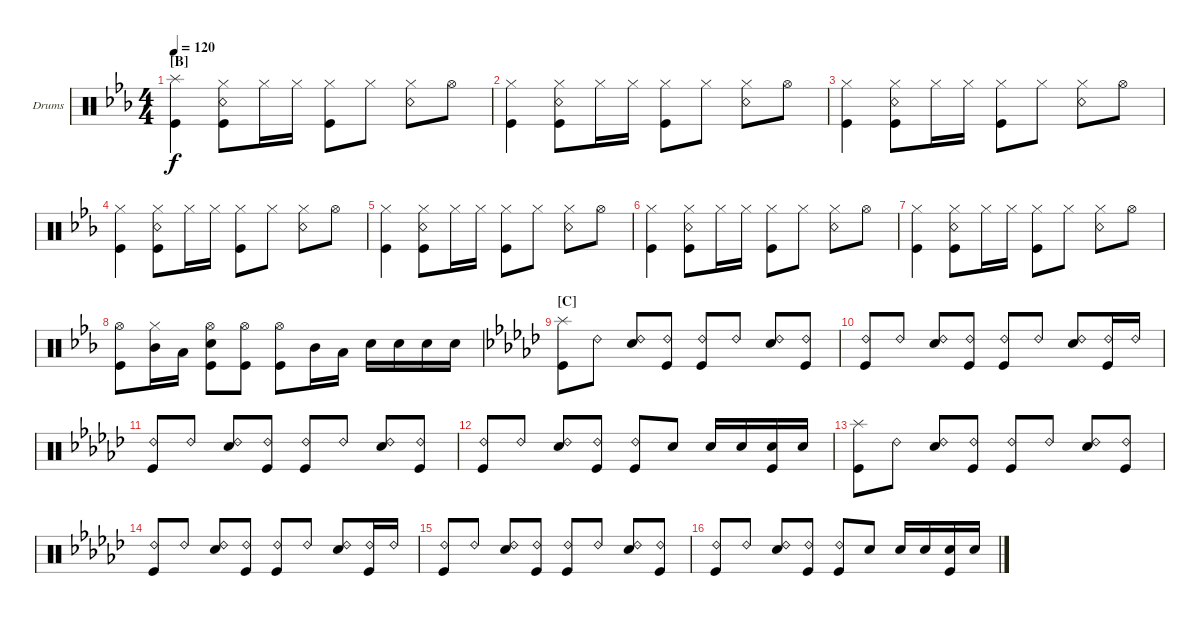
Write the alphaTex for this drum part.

\defaultSystemsLayout 4
\bracketExtendMode groupsimilarinstruments
\firstSystemTrackNameOrientation horizontal
\otherSystemsTrackNameOrientation horizontal
\track ("Drumkit" "Drums") {instrument percussion}
\staff {score}
\articulation defaults
\ts (4 4)
\section ("B" "")
\tempo 120
\clef neutral
\ks eb
("Kick (hit)" "Splash (hit)").4{dy f} ("Snare (rim shot)" "Hi-Hat (closed)" "Kick (hit)").8 "Hi-Hat (closed)".16 "Hi-Hat (closed)".16 ("Hi-Hat (closed)" "Kick (hit)").8 "Hi-Hat (closed)".8 ("Hi-Hat (closed)" "Snare (rim shot)").8 "Hi-Hat (open)".8 |
("Hi-Hat (closed)" "Kick (hit)").4 ("Snare (rim shot)" "Hi-Hat (closed)" "Kick (hit)").8 "Hi-Hat (closed)".16 "Hi-Hat (closed)".16 ("Hi-Hat (closed)" "Kick (hit)").8 "Hi-Hat (closed)".8 ("Hi-Hat (closed)" "Snare (rim shot)").8 "Hi-Hat (open)".8 |
("Hi-Hat (closed)" "Kick (hit)").4 ("Snare (rim shot)" "Hi-Hat (closed)" "Kick (hit)").8 "Hi-Hat (closed)".16 "Hi-Hat (closed)".16 ("Hi-Hat (closed)" "Kick (hit)").8 "Hi-Hat (closed)".8 ("Hi-Hat (closed)" "Snare (rim shot)").8 "Hi-Hat (open)".8 |
("Hi-Hat (closed)" "Kick (hit)").4 ("Snare (rim shot)" "Hi-Hat (closed)" "Kick (hit)").8 "Hi-Hat (closed)".16 "Hi-Hat (closed)".16 ("Hi-Hat (closed)" "Kick (hit)").8 "Hi-Hat (closed)".8 ("Hi-Hat (closed)" "Snare (rim shot)").8 "Hi-Hat (open)".8 |
("Hi-Hat (closed)" "Kick (hit)").4 ("Snare (rim shot)" "Hi-Hat (closed)" "Kick (hit)").8 "Hi-Hat (closed)".16 "Hi-Hat (closed)".16 ("Hi-Hat (closed)" "Kick (hit)").8 "Hi-Hat (closed)".8 ("Hi-Hat (closed)" "Snare (rim shot)").8 "Hi-Hat (open)".8 |
("Hi-Hat (closed)" "Kick (hit)").4 ("Snare (rim shot)" "Hi-Hat (closed)" "Kick (hit)").8 "Hi-Hat (closed)".16 "Hi-Hat (closed)".16 ("Hi-Hat (closed)" "Kick (hit)").8 "Hi-Hat (closed)".8 ("Hi-Hat (closed)" "Snare (rim shot)").8 "Hi-Hat (open)".8 |
("Hi-Hat (closed)" "Kick (hit)").4 ("Snare (rim shot)" "Hi-Hat (closed)" "Kick (hit)").8 "Hi-Hat (closed)".16 "Hi-Hat (closed)".16 ("Hi-Hat (closed)" "Kick (hit)").8 "Hi-Hat (closed)".8 ("Hi-Hat (closed)" "Snare (rim shot)").8 "Hi-Hat (open)".8 |
("Kick (hit)" "Hi-Hat (open)").8 ("Hi-Hat (closed)" "Mid Tom (hit)").16 "Low Tom (hit)".16 ("Kick (hit)" "Snare (hit) 2" "Hi-Hat (open)").8 ("Kick (hit)" "Hi-Hat (open)").8 ("Kick (hit)" "Hi-Hat (open)").8 "Mid Tom (hit)".16 "Low Tom (hit)".16 "Snare (hit) 2".16 "Snare (hit) 2".16 "Snare (hit) 2".16 "Snare (hit) 2".16 |
\section ("C" "")
\ks ebminor
("Kick (hit)" "Splash (hit)").8 "Ride (bell) 2".8 ("Ride (bell) 2" "Snare (hit) 2").8 ("Kick (hit)" "Ride (bell) 2").8 ("Ride (bell) 2" "Kick (hit)").8 "Ride (bell) 2".8 ("Ride (bell) 2" "Snare (hit) 2").8 ("Ride (bell) 2" "Kick (hit)").8 |
("Kick (hit)" "Ride (bell) 2").8 "Ride (bell) 2".8 ("Ride (bell) 2" "Snare (hit) 2").8 ("Kick (hit)" "Ride (bell) 2").8 ("Ride (bell) 2" "Kick (hit)").8 "Ride (bell) 2".8 ("Ride (bell) 2" "Snare (hit) 2").8 ("Ride (bell) 2" "Kick (hit)").16 "Ride (bell) 2".16 |
("Kick (hit)" "Ride (bell) 2").8 "Ride (bell) 2".8 ("Ride (bell) 2" "Snare (hit) 2").8 ("Kick (hit)" "Ride (bell) 2").8 ("Ride (bell) 2" "Kick (hit)").8 "Ride (bell) 2".8 ("Ride (bell) 2" "Snare (hit) 2").8 ("Ride (bell) 2" "Kick (hit)").8 |
("Kick (hit)" "Ride (bell) 2").8 "Ride (bell) 2".8 ("Ride (bell) 2" "Snare (hit) 2").8 ("Ride (bell) 2" "Kick (hit)").8 ("Ride (bell) 2" "Kick (hit)").8 "Snare (hit) 2".8 "Snare (hit) 2".16 "Snare (hit) 2".16 ("Snare (hit) 2" "Kick (hit)").16 "Snare (hit) 2".16 |
("Kick (hit)" "Splash (hit)").8 "Ride (bell) 2".8 ("Ride (bell) 2" "Snare (hit) 2").8 ("Kick (hit)" "Ride (bell) 2").8 ("Ride (bell) 2" "Kick (hit)").8 "Ride (bell) 2".8 ("Ride (bell) 2" "Snare (hit) 2").8 ("Ride (bell) 2" "Kick (hit)").8 |
("Kick (hit)" "Ride (bell) 2").8 "Ride (bell) 2".8 ("Ride (bell) 2" "Snare (hit) 2").8 ("Kick (hit)" "Ride (bell) 2").8 ("Ride (bell) 2" "Kick (hit)").8 "Ride (bell) 2".8 ("Ride (bell) 2" "Snare (hit) 2").8 ("Ride (bell) 2" "Kick (hit)").16 "Ride (bell) 2".16 |
("Kick (hit)" "Ride (bell) 2").8 "Ride (bell) 2".8 ("Ride (bell) 2" "Snare (hit) 2").8 ("Kick (hit)" "Ride (bell) 2").8 ("Ride (bell) 2" "Kick (hit)").8 "Ride (bell) 2".8 ("Ride (bell) 2" "Snare (hit) 2").8 ("Ride (bell) 2" "Kick (hit)").8 |
("Kick (hit)" "Ride (bell) 2").8 "Ride (bell) 2".8 ("Ride (bell) 2" "Snare (hit) 2").8 ("Ride (bell) 2" "Kick (hit)").8 ("Ride (bell) 2" "Kick (hit)").8 "Snare (hit) 2".8 "Snare (hit) 2".16 "Snare (hit) 2".16 ("Snare (hit) 2" "Kick (hit)").16 "Snare (hit) 2".16
